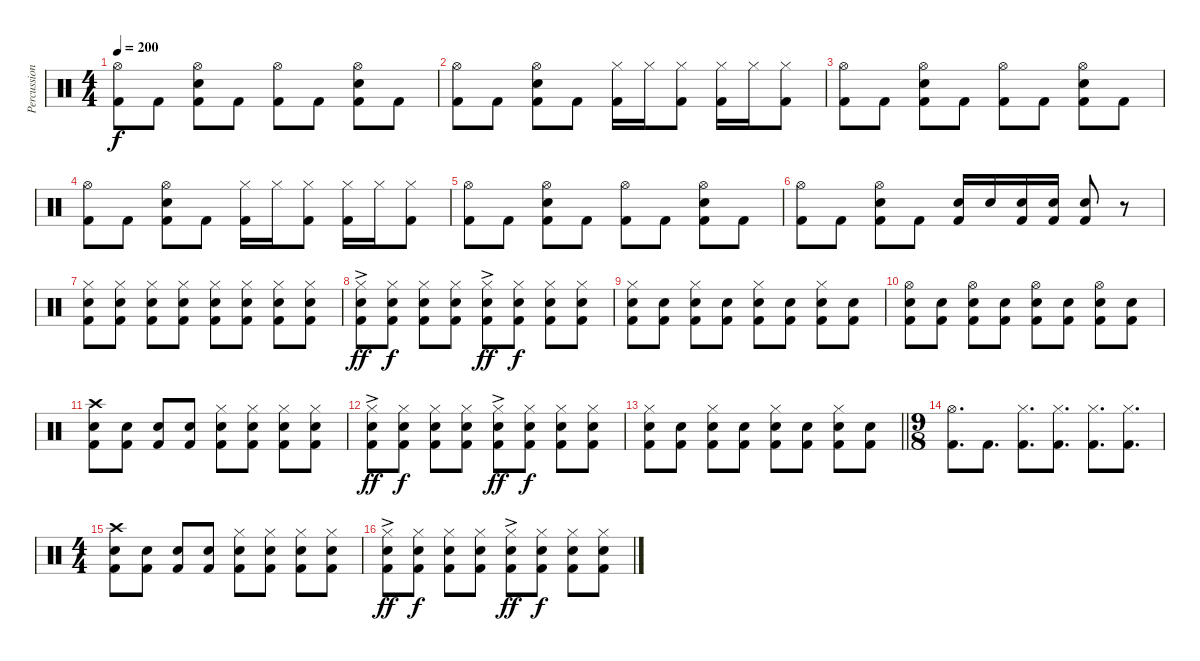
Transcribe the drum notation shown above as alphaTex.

\track ("Percussions" "Percussion") {instrument percussion}
\staff {score}
\articulation defaults
\ts (4 4)
\tempo 200
\clef neutral
\ks c
("Hi-Hat (open)" "Kick (hit) 2").8{dy f} "Kick (hit) 2".8 ("Hi-Hat (open)" "Electric Snare (hit)" "Kick (hit) 2").8 "Kick (hit) 2".8 ("Hi-Hat (open)" "Kick (hit) 2").8 "Kick (hit) 2".8 ("Hi-Hat (open)" "Electric Snare (hit)" "Kick (hit) 2").8 "Kick (hit) 2".8 |
("Hi-Hat (open)" "Kick (hit) 2").8 "Kick (hit) 2".8 ("Hi-Hat (open)" "Electric Snare (hit)" "Kick (hit) 2").8 "Kick (hit) 2".8 ("Hi-Hat (closed)" "Kick (hit) 2").16 "Hi-Hat (closed)".16 ("Hi-Hat (closed)" "Kick (hit) 2").8 ("Hi-Hat (closed)" "Kick (hit) 2").16 "Hi-Hat (closed)".16 ("Hi-Hat (closed)" "Kick (hit) 2").8 |
("Hi-Hat (open)" "Kick (hit) 2").8 "Kick (hit) 2".8 ("Hi-Hat (open)" "Electric Snare (hit)" "Kick (hit) 2").8 "Kick (hit) 2".8 ("Hi-Hat (open)" "Kick (hit) 2").8 "Kick (hit) 2".8 ("Hi-Hat (open)" "Electric Snare (hit)" "Kick (hit) 2").8 "Kick (hit) 2".8 |
("Hi-Hat (open)" "Kick (hit) 2").8 "Kick (hit) 2".8 ("Hi-Hat (open)" "Electric Snare (hit)" "Kick (hit) 2").8 "Kick (hit) 2".8 ("Hi-Hat (closed)" "Kick (hit) 2").16 "Hi-Hat (closed)".16 ("Hi-Hat (closed)" "Kick (hit) 2").8 ("Hi-Hat (closed)" "Kick (hit) 2").16 "Hi-Hat (closed)".16 ("Hi-Hat (closed)" "Kick (hit) 2").8 |
("Hi-Hat (open)" "Kick (hit) 2").8 "Kick (hit) 2".8 ("Hi-Hat (open)" "Electric Snare (hit)" "Kick (hit) 2").8 "Kick (hit) 2".8 ("Hi-Hat (open)" "Kick (hit) 2").8 "Kick (hit) 2".8 ("Hi-Hat (open)" "Electric Snare (hit)" "Kick (hit) 2").8 "Kick (hit) 2".8 |
("Hi-Hat (open)" "Kick (hit) 2").8 "Kick (hit) 2".8 ("Hi-Hat (open)" "Electric Snare (hit)" "Kick (hit) 2").8 "Kick (hit) 2".8 ("Electric Snare (hit)" "Kick (hit) 2").16 "Electric Snare (hit)".16 ("Electric Snare (hit)" "Kick (hit) 2").16 ("Electric Snare (hit)" "Kick (hit) 2").16 ("Electric Snare (hit)" "Kick (hit) 2").8 r.8 |
("Hi-Hat (closed)" "Electric Snare (hit)" "Kick (hit) 2").8 ("Hi-Hat (closed)" "Electric Snare (hit)" "Kick (hit) 2").8 ("Hi-Hat (closed)" "Electric Snare (hit)" "Kick (hit) 2").8 ("Hi-Hat (closed)" "Electric Snare (hit)" "Kick (hit) 2").8 ("Hi-Hat (closed)" "Electric Snare (hit)" "Kick (hit) 2").8 ("Hi-Hat (closed)" "Electric Snare (hit)" "Kick (hit) 2").8 ("Hi-Hat (closed)" "Electric Snare (hit)" "Kick (hit) 2").8 ("Hi-Hat (closed)" "Electric Snare (hit)" "Kick (hit) 2").8 |
("Hi-Hat (closed)"{ac} "Electric Snare (hit)" "Kick (hit) 2").8{dy ff} ("Hi-Hat (closed)" "Electric Snare (hit)" "Kick (hit) 2").8{dy f} ("Hi-Hat (closed)" "Electric Snare (hit)" "Kick (hit) 2").8 ("Hi-Hat (closed)" "Electric Snare (hit)" "Kick (hit) 2").8 ("Hi-Hat (closed)"{ac} "Electric Snare (hit)" "Kick (hit) 2").8{dy ff} ("Hi-Hat (closed)" "Electric Snare (hit)" "Kick (hit) 2").8{dy f} ("Hi-Hat (closed)" "Electric Snare (hit)" "Kick (hit) 2").8 ("Hi-Hat (closed)" "Electric Snare (hit)" "Kick (hit) 2").8 |
("Hi-Hat (closed)" "Electric Snare (hit)" "Kick (hit) 2").8 ("Electric Snare (hit)" "Kick (hit) 2").8 ("Hi-Hat (closed)" "Electric Snare (hit)" "Kick (hit) 2").8 ("Electric Snare (hit)" "Kick (hit) 2").8 ("Hi-Hat (closed)" "Electric Snare (hit)" "Kick (hit) 2").8 ("Electric Snare (hit)" "Kick (hit) 2").8 ("Hi-Hat (closed)" "Electric Snare (hit)" "Kick (hit) 2").8 ("Electric Snare (hit)" "Kick (hit) 2").8 |
("Hi-Hat (open)" "Electric Snare (hit)" "Kick (hit) 2").8 ("Electric Snare (hit)" "Kick (hit) 2").8 ("Hi-Hat (open)" "Electric Snare (hit)" "Kick (hit) 2").8 ("Electric Snare (hit)" "Kick (hit) 2").8 ("Hi-Hat (open)" "Electric Snare (hit)" "Kick (hit) 2").8 ("Electric Snare (hit)" "Kick (hit) 2").8 ("Hi-Hat (open)" "Electric Snare (hit)" "Kick (hit) 2").8 ("Electric Snare (hit)" "Kick (hit) 2").8 |
("Crash high (hit)" "Electric Snare (hit)" "Kick (hit) 2").8 ("Electric Snare (hit)" "Kick (hit) 2").8 ("Electric Snare (hit)" "Kick (hit) 2").8 ("Electric Snare (hit)" "Kick (hit) 2").8 ("Hi-Hat (closed)" "Electric Snare (hit)" "Kick (hit) 2").8 ("Hi-Hat (closed)" "Electric Snare (hit)" "Kick (hit) 2").8 ("Hi-Hat (closed)" "Electric Snare (hit)" "Kick (hit) 2").8 ("Hi-Hat (closed)" "Electric Snare (hit)" "Kick (hit) 2").8 |
("Hi-Hat (closed)"{ac} "Electric Snare (hit)" "Kick (hit) 2").8{dy ff} ("Hi-Hat (closed)" "Electric Snare (hit)" "Kick (hit) 2").8{dy f} ("Hi-Hat (closed)" "Electric Snare (hit)" "Kick (hit) 2").8 ("Hi-Hat (closed)" "Electric Snare (hit)" "Kick (hit) 2").8 ("Hi-Hat (closed)"{ac} "Electric Snare (hit)" "Kick (hit) 2").8{dy ff} ("Hi-Hat (closed)" "Electric Snare (hit)" "Kick (hit) 2").8{dy f} ("Hi-Hat (closed)" "Electric Snare (hit)" "Kick (hit) 2").8 ("Hi-Hat (closed)" "Electric Snare (hit)" "Kick (hit) 2").8 |
\barLineRight lightlight
("Hi-Hat (closed)" "Electric Snare (hit)" "Kick (hit) 2").8 ("Electric Snare (hit)" "Kick (hit) 2").8 ("Hi-Hat (closed)" "Electric Snare (hit)" "Kick (hit) 2").8 ("Electric Snare (hit)" "Kick (hit) 2").8 ("Hi-Hat (closed)" "Electric Snare (hit)" "Kick (hit) 2").8 ("Electric Snare (hit)" "Kick (hit) 2").8 ("Hi-Hat (closed)" "Electric Snare (hit)" "Kick (hit) 2").8 ("Electric Snare (hit)" "Kick (hit) 2").8 |
\ts (9 8)
("Hi-Hat (open)" "Kick (hit) 2").8{d} "Kick (hit) 2".8{d} ("Hi-Hat (closed)" "Kick (hit) 2").8{d} ("Hi-Hat (closed)" "Kick (hit) 2").8{d} ("Hi-Hat (closed)" "Kick (hit) 2").8{d} ("Hi-Hat (closed)" "Kick (hit) 2").8{d} |
\ts (4 4)
("Crash high (hit)" "Electric Snare (hit)" "Kick (hit) 2").8 ("Electric Snare (hit)" "Kick (hit) 2").8 ("Electric Snare (hit)" "Kick (hit) 2").8 ("Electric Snare (hit)" "Kick (hit) 2").8 ("Hi-Hat (closed)" "Electric Snare (hit)" "Kick (hit) 2").8 ("Hi-Hat (closed)" "Electric Snare (hit)" "Kick (hit) 2").8 ("Hi-Hat (closed)" "Electric Snare (hit)" "Kick (hit) 2").8 ("Hi-Hat (closed)" "Electric Snare (hit)" "Kick (hit) 2").8 |
("Hi-Hat (closed)"{ac} "Electric Snare (hit)" "Kick (hit) 2").8{dy ff} ("Hi-Hat (closed)" "Electric Snare (hit)" "Kick (hit) 2").8{dy f} ("Hi-Hat (closed)" "Electric Snare (hit)" "Kick (hit) 2").8 ("Hi-Hat (closed)" "Electric Snare (hit)" "Kick (hit) 2").8 ("Hi-Hat (closed)"{ac} "Electric Snare (hit)" "Kick (hit) 2").8{dy ff} ("Hi-Hat (closed)" "Electric Snare (hit)" "Kick (hit) 2").8{dy f} ("Hi-Hat (closed)" "Electric Snare (hit)" "Kick (hit) 2").8 ("Hi-Hat (closed)" "Electric Snare (hit)" "Kick (hit) 2").8
